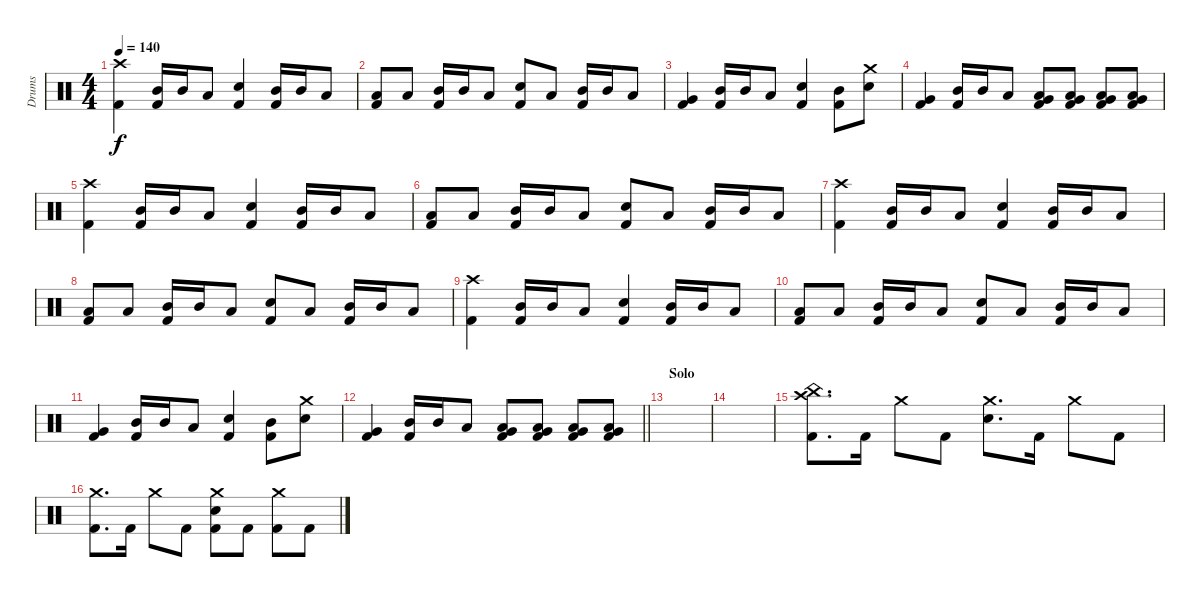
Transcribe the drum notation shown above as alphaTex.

\track ("Drums" "Drums") {instrument percussion}
\staff {score}
\articulation defaults
\ts (4 4)
\tempo 140
\clef neutral
\ks c
("Crash high (hit)" "Kick (hit) 2").4{dy f} ("Mid Tom (hit)" "Kick (hit) 2").16 "Mid Tom (hit)".16 "Low Tom (hit)".8 ("Snare (hit) 2" "Kick (hit) 2").4 ("Mid Tom (hit)" "Kick (hit) 2").16 "Mid Tom (hit)".16 "Low Tom (hit)".8 |
("Low Tom (hit)" "Kick (hit) 2").8 "Low Tom (hit)".8 ("Mid Tom (hit)" "Kick (hit) 2").16 "Mid Tom (hit)".16 "Low Tom (hit)".8 ("Snare (hit) 2" "Kick (hit) 2").8 "Low Tom (hit)".8 ("Mid Tom (hit)" "Kick (hit) 2").16 "Mid Tom (hit)".16 "Low Tom (hit)".8 |
("Very Low Tom (hit)" "Kick (hit) 2").4 ("Mid Tom (hit)" "Kick (hit) 2").16 "Mid Tom (hit)".16 "Low Tom (hit)".8 ("Snare (hit) 2" "Kick (hit) 2").4 ("Mid Tom (hit)" "Kick (hit) 2").8 ("Crash medium (hit)" "Snare (hit) 2").8 |
("Very Low Tom (hit)" "Kick (hit) 2").4 ("Mid Tom (hit)" "Kick (hit) 2").16 "Mid Tom (hit)".16 "Low Tom (hit)".8 ("Very Low Tom (hit)" "Low Floor Tom (hit)" "Kick (hit) 2").8 ("Very Low Tom (hit)" "Low Floor Tom (hit)" "Kick (hit) 2").8 ("Very Low Tom (hit)" "Low Floor Tom (hit)" "Kick (hit) 2").8 ("Very Low Tom (hit)" "Low Floor Tom (hit)" "Kick (hit) 2").8 |
("Crash high (hit)" "Kick (hit) 2").4 ("Mid Tom (hit)" "Kick (hit) 2").16 "Mid Tom (hit)".16 "Low Tom (hit)".8 ("Snare (hit) 2" "Kick (hit) 2").4 ("Mid Tom (hit)" "Kick (hit) 2").16 "Mid Tom (hit)".16 "Low Tom (hit)".8 |
("Low Tom (hit)" "Kick (hit) 2").8 "Low Tom (hit)".8 ("Mid Tom (hit)" "Kick (hit) 2").16 "Mid Tom (hit)".16 "Low Tom (hit)".8 ("Snare (hit) 2" "Kick (hit) 2").8 "Low Tom (hit)".8 ("Mid Tom (hit)" "Kick (hit) 2").16 "Mid Tom (hit)".16 "Low Tom (hit)".8 |
("Crash high (hit)" "Kick (hit) 2").4 ("Mid Tom (hit)" "Kick (hit) 2").16 "Mid Tom (hit)".16 "Low Tom (hit)".8 ("Snare (hit) 2" "Kick (hit) 2").4 ("Mid Tom (hit)" "Kick (hit) 2").16 "Mid Tom (hit)".16 "Low Tom (hit)".8 |
("Low Tom (hit)" "Kick (hit) 2").8 "Low Tom (hit)".8 ("Mid Tom (hit)" "Kick (hit) 2").16 "Mid Tom (hit)".16 "Low Tom (hit)".8 ("Snare (hit) 2" "Kick (hit) 2").8 "Low Tom (hit)".8 ("Mid Tom (hit)" "Kick (hit) 2").16 "Mid Tom (hit)".16 "Low Tom (hit)".8 |
("Crash high (hit)" "Kick (hit) 2").4 ("Mid Tom (hit)" "Kick (hit) 2").16 "Mid Tom (hit)".16 "Low Tom (hit)".8 ("Snare (hit) 2" "Kick (hit) 2").4 ("Mid Tom (hit)" "Kick (hit) 2").16 "Mid Tom (hit)".16 "Low Tom (hit)".8 |
("Low Tom (hit)" "Kick (hit) 2").8 "Low Tom (hit)".8 ("Mid Tom (hit)" "Kick (hit) 2").16 "Mid Tom (hit)".16 "Low Tom (hit)".8 ("Snare (hit) 2" "Kick (hit) 2").8 "Low Tom (hit)".8 ("Mid Tom (hit)" "Kick (hit) 2").16 "Mid Tom (hit)".16 "Low Tom (hit)".8 |
("Very Low Tom (hit)" "Kick (hit) 2").4 ("Mid Tom (hit)" "Kick (hit) 2").16 "Mid Tom (hit)".16 "Low Tom (hit)".8 ("Snare (hit) 2" "Kick (hit) 2").4 ("Mid Tom (hit)" "Kick (hit) 2").8 ("Crash medium (hit)" "Snare (hit) 2").8 |
\barLineRight lightlight
("Very Low Tom (hit)" "Kick (hit) 2").4 ("Mid Tom (hit)" "Kick (hit) 2").16 "Mid Tom (hit)".16 "Low Tom (hit)".8 ("Very Low Tom (hit)" "Low Floor Tom (hit)" "Kick (hit) 2").8 ("Very Low Tom (hit)" "Low Floor Tom (hit)" "Kick (hit) 2").8 ("Very Low Tom (hit)" "Low Floor Tom (hit)" "Kick (hit) 2").8 ("Very Low Tom (hit)" "Low Floor Tom (hit)" "Kick (hit) 2").8 |
\section ("" "Solo")
|
|
("Crash high (hit)" "China (hit)" "Kick (hit) 2").8{d} "Kick (hit) 2".16 "Crash medium (hit)".8 "Kick (hit) 2".8 ("Crash medium (hit)" "Snare (hit) 2").8{d} "Kick (hit) 2".16 "Crash medium (hit)".8 "Kick (hit) 2".8 |
("Crash medium (hit)" "Kick (hit) 2").8{d} "Kick (hit) 2".16 "Crash medium (hit)".8 "Kick (hit) 2".8 ("Crash medium (hit)" "Snare (hit) 2" "Kick (hit) 2").8 "Kick (hit) 2".8 ("Crash medium (hit)" "Kick (hit) 2").8 "Kick (hit) 2".8
